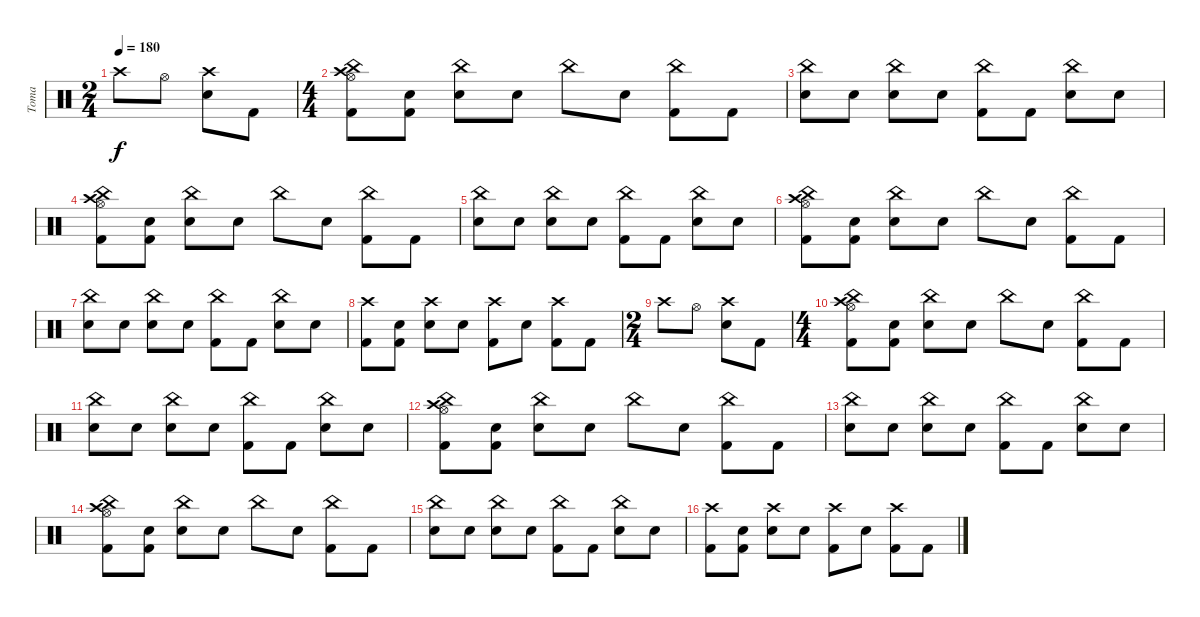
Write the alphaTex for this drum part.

\track ("Toma" "Toma") {instrument percussion}
\staff {score}
\articulation defaults
\ts (2 4)
\tempo 180
\clef neutral
\ks c "Crash high (hit)".8{dy f} "Hi-Hat (open)".8
("Crash high (hit)" "Snare (hit)").8 "Kick (hit) 2".8 |
\ts (4 4)
("China (hit)" "Kick (hit) 2" "Hi-Hat (open)" "Crash high (hit)").8 ("Kick (hit) 2" "Snare (hit)").8 ("China (hit)" "Snare (hit)").8 "Snare (hit)".8 "China (hit)".8 "Snare (hit)".8 ("China (hit)" "Kick (hit) 2").8 "Kick (hit) 2".8 |
("China (hit)" "Electric Snare (hit)").8 "Snare (hit)".8 ("China (hit)" "Snare (hit)").8 "Snare (hit)".8 ("China (hit)" "Kick (hit) 2").8 "Kick (hit) 2".8 ("China (hit)" "Snare (hit)").8 "Snare (hit)".8 |
("China (hit)" "Kick (hit) 2" "Hi-Hat (open)" "Crash high (hit)").8 ("Kick (hit) 2" "Snare (hit)").8 ("China (hit)" "Snare (hit)").8 "Snare (hit)".8 "China (hit)".8 "Snare (hit)".8 ("China (hit)" "Kick (hit) 2").8 "Kick (hit) 2".8 |
("China (hit)" "Electric Snare (hit)").8 "Snare (hit)".8 ("China (hit)" "Snare (hit)").8 "Snare (hit)".8 ("China (hit)" "Kick (hit) 2").8 "Kick (hit) 2".8 ("China (hit)" "Snare (hit)").8 "Snare (hit)".8 |
("China (hit)" "Kick (hit) 2" "Hi-Hat (open)" "Crash high (hit)").8 ("Kick (hit) 2" "Snare (hit)").8 ("China (hit)" "Snare (hit)").8 "Snare (hit)".8 "China (hit)".8 "Snare (hit)".8 ("China (hit)" "Kick (hit) 2").8 "Kick (hit) 2".8 |
("China (hit)" "Electric Snare (hit)").8 "Snare (hit)".8 ("China (hit)" "Snare (hit)").8 "Snare (hit)".8 ("China (hit)" "Kick (hit) 2").8 "Kick (hit) 2".8 ("China (hit)" "Snare (hit)").8 "Snare (hit)".8 |
("Crash high (hit)" "Kick (hit) 2").8 ("Snare (hit)" "Kick (hit) 2").8 ("Crash high (hit)" "Snare (hit)").8 "Electric Snare (hit)".8 ("Crash high (hit)" "Kick (hit) 2").8 "Snare (hit)".8 ("Crash high (hit)" "Kick (hit) 2").8 "Kick (hit) 2".8 |
\ts (2 4)
"Crash high (hit)".8 "Hi-Hat (open)".8 ("Crash high (hit)" "Snare (hit)").8 "Kick (hit) 2".8 |
\ts (4 4)
("China (hit)" "Kick (hit) 2" "Hi-Hat (open)" "Crash high (hit)").8 ("Kick (hit) 2" "Snare (hit)").8 ("China (hit)" "Snare (hit)").8 "Snare (hit)".8 "China (hit)".8 "Snare (hit)".8 ("China (hit)" "Kick (hit) 2").8 "Kick (hit) 2".8 |
("China (hit)" "Electric Snare (hit)").8 "Snare (hit)".8 ("China (hit)" "Snare (hit)").8 "Snare (hit)".8 ("China (hit)" "Kick (hit) 2").8 "Kick (hit) 2".8 ("China (hit)" "Snare (hit)").8 "Snare (hit)".8 |
("China (hit)" "Kick (hit) 2" "Hi-Hat (open)" "Crash high (hit)").8 ("Kick (hit) 2" "Snare (hit)").8 ("China (hit)" "Snare (hit)").8 "Snare (hit)".8 "China (hit)".8 "Snare (hit)".8 ("China (hit)" "Kick (hit) 2").8 "Kick (hit) 2".8 |
("China (hit)" "Electric Snare (hit)").8 "Snare (hit)".8 ("China (hit)" "Snare (hit)").8 "Snare (hit)".8 ("China (hit)" "Kick (hit) 2").8 "Kick (hit) 2".8 ("China (hit)" "Snare (hit)").8 "Snare (hit)".8 |
("China (hit)" "Kick (hit) 2" "Hi-Hat (open)" "Crash high (hit)").8 ("Kick (hit) 2" "Snare (hit)").8 ("China (hit)" "Snare (hit)").8 "Snare (hit)".8 "China (hit)".8 "Snare (hit)".8 ("China (hit)" "Kick (hit) 2").8 "Kick (hit) 2".8 |
("China (hit)" "Electric Snare (hit)").8 "Snare (hit)".8 ("China (hit)" "Snare (hit)").8 "Snare (hit)".8 ("China (hit)" "Kick (hit) 2").8 "Kick (hit) 2".8 ("China (hit)" "Snare (hit)").8 "Snare (hit)".8 |
("Crash high (hit)" "Kick (hit) 2").8 ("Snare (hit)" "Kick (hit) 2").8 ("Crash high (hit)" "Snare (hit)").8 "Electric Snare (hit)".8 ("Crash high (hit)" "Kick (hit) 2").8 "Snare (hit)".8 ("Crash high (hit)" "Kick (hit) 2").8 "Kick (hit) 2".8
